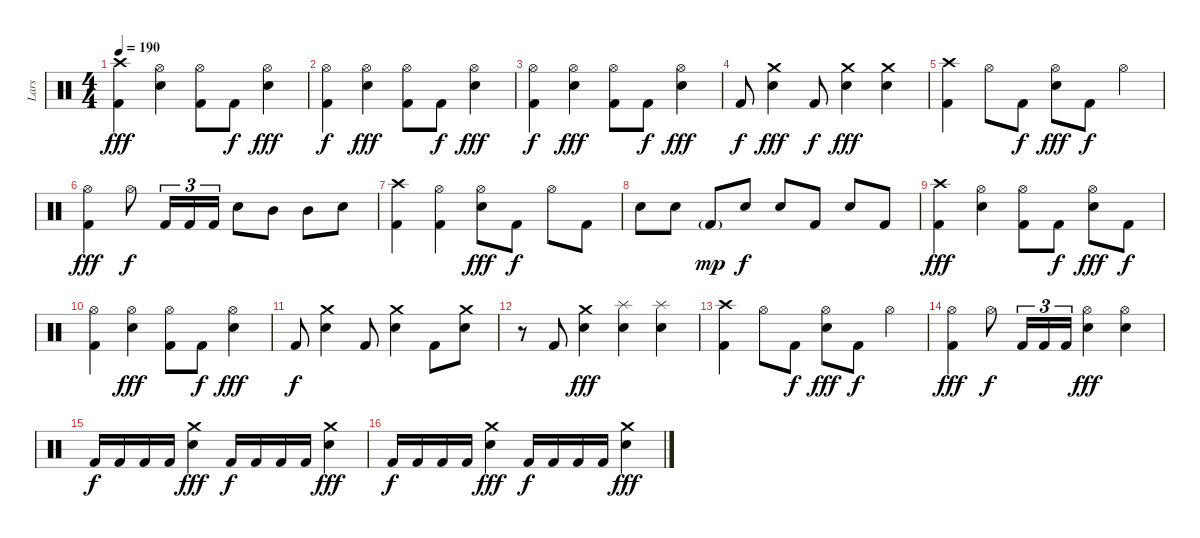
\track ("Lars" "Lars") {instrument percussion}
\staff {score}
\articulation defaults
\ts (4 4)
\tempo 190
\clef neutral
\ks c
("Crash high (hit)" "Kick (hit) 2").4{dy fff} ("Hi-Hat (open)" "Snare (hit) 2").4 ("Hi-Hat (open)" "Kick (hit) 2").8 "Kick (hit) 2".8{dy f} ("Hi-Hat (open)" "Snare (hit) 2").4{dy fff} |
("Hi-Hat (open)" "Kick (hit) 2").4{dy f} ("Hi-Hat (open)" "Snare (hit) 2").4{dy fff} ("Hi-Hat (open)" "Kick (hit) 2").8 "Kick (hit) 2".8{dy f} ("Hi-Hat (open)" "Snare (hit) 2").4{dy fff} |
("Hi-Hat (open)" "Kick (hit) 2").4{dy f} ("Hi-Hat (open)" "Snare (hit) 2").4{dy fff} ("Hi-Hat (open)" "Kick (hit) 2").8 "Kick (hit) 2".8{dy f} ("Hi-Hat (open)" "Snare (hit) 2").4{dy fff} |
"Kick (hit) 2".8{dy f} ("Crash medium (hit)" "Snare (hit) 2").4{dy fff} "Kick (hit) 2".8{dy f} ("Crash medium (hit)" "Snare (hit) 2").4{dy fff} ("Crash medium (hit)" "Snare (hit) 2").4 |
("Crash high (hit)" "Kick (hit) 2").4 "Hi-Hat (open)".8 "Kick (hit) 2".8{dy f} ("Hi-Hat (open)" "Snare (hit) 2").8{dy fff} "Kick (hit) 2".8{dy f} "Hi-Hat (open)".4 |
("Hi-Hat (open)" "Kick (hit) 2").4{dy fff} "Hi-Hat (open)".8{dy f} "Kick (hit) 2".16{tu (3 2)} "Kick (hit) 2".16{tu (3 2)} "Kick (hit) 2".16{tu (3 2)} "Snare (hit) 2".8 "Mid Tom (hit)".8 "Mid Tom (hit)".8 "Snare (hit) 2".8 |
("Crash high (hit)" "Kick (hit) 2").4 ("Hi-Hat (open)" "Kick (hit) 2").4 ("Hi-Hat (open)" "Snare (hit) 2").8{dy fff} "Kick (hit) 2".8{dy f} "Hi-Hat (open)".8 "Kick (hit) 2".8 |
"Snare (hit) 2".8 "Snare (hit) 2".8 "Kick (hit) 2"{g}.8{dy mp} "Snare (hit) 2".8{dy f} "Snare (hit) 2".8 "Kick (hit) 2".8 "Snare (hit) 2".8 "Kick (hit) 2".8 |
("Crash high (hit)" "Kick (hit) 2").4{dy fff} ("Hi-Hat (open)" "Snare (hit) 2").4 ("Hi-Hat (open)" "Kick (hit) 2").8 "Kick (hit) 2".8{dy f} ("Hi-Hat (open)" "Snare (hit) 2").8{dy fff} "Kick (hit) 2".8{dy f} |
("Hi-Hat (open)" "Kick (hit) 2").4 ("Hi-Hat (open)" "Snare (hit) 2").4{dy fff} ("Hi-Hat (open)" "Kick (hit) 2").8 "Kick (hit) 2".8{dy f} ("Hi-Hat (open)" "Snare (hit) 2").4{dy fff} |
"Kick (hit) 2".8{dy f} ("Crash medium (hit)" "Snare (hit) 2").4 "Kick (hit) 2".8 ("Crash medium (hit)" "Snare (hit) 2").4 "Kick (hit) 2".8 ("Crash medium (hit)" "Snare (hit) 2").8 |
r.8 "Kick (hit) 2".8 ("Crash medium (hit)" "Snare (hit) 2").4{dy fff} ("Splash (hit)" "Snare (hit) 2").4 ("Splash (hit)" "Snare (hit) 2").4 |
("Crash high (hit)" "Kick (hit) 2").4 "Hi-Hat (open)".8 "Kick (hit) 2".8{dy f} ("Hi-Hat (open)" "Snare (hit) 2").8{dy fff} "Kick (hit) 2".8{dy f} "Hi-Hat (open)".4 |
("Hi-Hat (open)" "Kick (hit) 2").4{dy fff} "Hi-Hat (open)".8{dy f} "Kick (hit) 2".16{tu (3 2)} "Kick (hit) 2".16{tu (3 2)} "Kick (hit) 2".16{tu (3 2)} ("Hi-Hat (open)" "Snare (hit) 2").4{dy fff} ("Hi-Hat (open)" "Snare (hit) 2").4 |
"Kick (hit) 2".16{dy f} "Kick (hit) 2".16 "Kick (hit) 2".16 "Kick (hit) 2".16 ("Crash medium (hit)" "Snare (hit) 2").4{dy fff} "Kick (hit) 2".16{dy f} "Kick (hit) 2".16 "Kick (hit) 2".16 "Kick (hit) 2".16 ("Crash medium (hit)" "Snare (hit) 2").4{dy fff} |
"Kick (hit) 2".16{dy f} "Kick (hit) 2".16 "Kick (hit) 2".16 "Kick (hit) 2".16 ("Crash medium (hit)" "Snare (hit) 2").4{dy fff} "Kick (hit) 2".16{dy f} "Kick (hit) 2".16 "Kick (hit) 2".16 "Kick (hit) 2".16 ("Crash medium (hit)" "Snare (hit) 2").4{dy fff}
